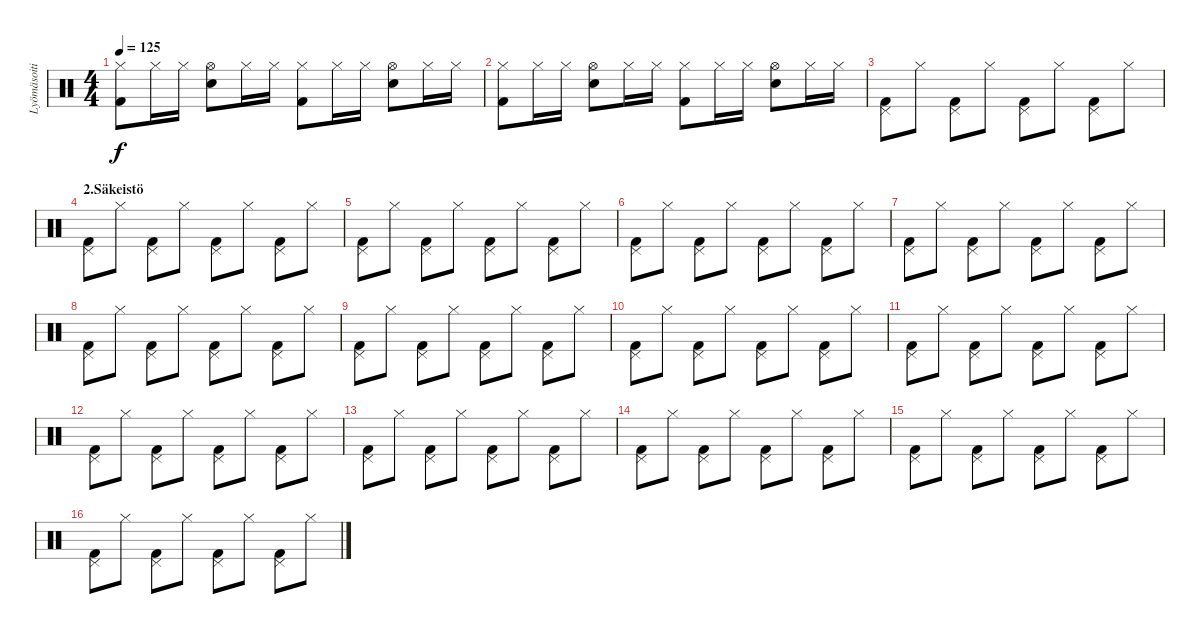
\track ("Lyömäsoitin" "Lyömäsoiti") {instrument percussion}
\staff {score}
\articulation defaults
\ts (4 4)
\tempo 125
\clef neutral
\ks c
("Hi-Hat (closed)" "Kick (hit) 2").8{dy f} "Hi-Hat (closed)".16 "Hi-Hat (closed)".16 ("Hi-Hat (open)" "Snare (hit) 2").8 "Hi-Hat (closed)".16 "Hi-Hat (closed)".16 ("Hi-Hat (closed)" "Kick (hit) 2").8 "Hi-Hat (closed)".16 "Hi-Hat (closed)".16 ("Hi-Hat (open)" "Snare (hit) 2").8 "Hi-Hat (closed)".16 "Hi-Hat (closed)".16 |
("Hi-Hat (closed)" "Kick (hit) 2").8 "Hi-Hat (closed)".16 "Hi-Hat (closed)".16 ("Hi-Hat (open)" "Snare (hit) 2").8 "Hi-Hat (closed)".16 "Hi-Hat (closed)".16 ("Hi-Hat (closed)" "Kick (hit) 2").8 "Hi-Hat (closed)".16 "Hi-Hat (closed)".16 ("Hi-Hat (open)" "Snare (hit) 2").8 "Hi-Hat (closed)".16 "Hi-Hat (closed)".16 |
("Pedal Hi-Hat (hit)" "Kick (hit) 2").8 "Hi-Hat (closed)".8 ("Pedal Hi-Hat (hit)" "Kick (hit) 2").8 "Hi-Hat (closed)".8 ("Pedal Hi-Hat (hit)" "Kick (hit) 2").8 "Hi-Hat (closed)".8 ("Pedal Hi-Hat (hit)" "Kick (hit) 2").8 "Hi-Hat (closed)".8 |
\section ("" "2.Säkeistö")
("Pedal Hi-Hat (hit)" "Kick (hit) 2").8 "Hi-Hat (closed)".8 ("Pedal Hi-Hat (hit)" "Kick (hit) 2").8 "Hi-Hat (closed)".8 ("Pedal Hi-Hat (hit)" "Kick (hit) 2").8 "Hi-Hat (closed)".8 ("Pedal Hi-Hat (hit)" "Kick (hit) 2").8 "Hi-Hat (closed)".8 |
("Pedal Hi-Hat (hit)" "Kick (hit) 2").8 "Hi-Hat (closed)".8 ("Pedal Hi-Hat (hit)" "Kick (hit) 2").8 "Hi-Hat (closed)".8 ("Pedal Hi-Hat (hit)" "Kick (hit) 2").8 "Hi-Hat (closed)".8 ("Pedal Hi-Hat (hit)" "Kick (hit) 2").8 "Hi-Hat (closed)".8 |
("Pedal Hi-Hat (hit)" "Kick (hit) 2").8 "Hi-Hat (closed)".8 ("Pedal Hi-Hat (hit)" "Kick (hit) 2").8 "Hi-Hat (closed)".8 ("Pedal Hi-Hat (hit)" "Kick (hit) 2").8 "Hi-Hat (closed)".8 ("Pedal Hi-Hat (hit)" "Kick (hit) 2").8 "Hi-Hat (closed)".8 |
("Pedal Hi-Hat (hit)" "Kick (hit) 2").8 "Hi-Hat (closed)".8 ("Pedal Hi-Hat (hit)" "Kick (hit) 2").8 "Hi-Hat (closed)".8 ("Pedal Hi-Hat (hit)" "Kick (hit) 2").8 "Hi-Hat (closed)".8 ("Pedal Hi-Hat (hit)" "Kick (hit) 2").8 "Hi-Hat (closed)".8 |
("Pedal Hi-Hat (hit)" "Kick (hit) 2").8 "Hi-Hat (closed)".8 ("Pedal Hi-Hat (hit)" "Kick (hit) 2").8 "Hi-Hat (closed)".8 ("Pedal Hi-Hat (hit)" "Kick (hit) 2").8 "Hi-Hat (closed)".8 ("Pedal Hi-Hat (hit)" "Kick (hit) 2").8 "Hi-Hat (closed)".8 |
("Pedal Hi-Hat (hit)" "Kick (hit) 2").8 "Hi-Hat (closed)".8 ("Pedal Hi-Hat (hit)" "Kick (hit) 2").8 "Hi-Hat (closed)".8 ("Pedal Hi-Hat (hit)" "Kick (hit) 2").8 "Hi-Hat (closed)".8 ("Pedal Hi-Hat (hit)" "Kick (hit) 2").8 "Hi-Hat (closed)".8 |
("Pedal Hi-Hat (hit)" "Kick (hit) 2").8 "Hi-Hat (closed)".8 ("Pedal Hi-Hat (hit)" "Kick (hit) 2").8 "Hi-Hat (closed)".8 ("Pedal Hi-Hat (hit)" "Kick (hit) 2").8 "Hi-Hat (closed)".8 ("Pedal Hi-Hat (hit)" "Kick (hit) 2").8 "Hi-Hat (closed)".8 |
("Pedal Hi-Hat (hit)" "Kick (hit) 2").8 "Hi-Hat (closed)".8 ("Pedal Hi-Hat (hit)" "Kick (hit) 2").8 "Hi-Hat (closed)".8 ("Pedal Hi-Hat (hit)" "Kick (hit) 2").8 "Hi-Hat (closed)".8 ("Pedal Hi-Hat (hit)" "Kick (hit) 2").8 "Hi-Hat (closed)".8 |
("Pedal Hi-Hat (hit)" "Kick (hit) 2").8 "Hi-Hat (closed)".8 ("Pedal Hi-Hat (hit)" "Kick (hit) 2").8 "Hi-Hat (closed)".8 ("Pedal Hi-Hat (hit)" "Kick (hit) 2").8 "Hi-Hat (closed)".8 ("Pedal Hi-Hat (hit)" "Kick (hit) 2").8 "Hi-Hat (closed)".8 |
("Pedal Hi-Hat (hit)" "Kick (hit) 2").8 "Hi-Hat (closed)".8 ("Pedal Hi-Hat (hit)" "Kick (hit) 2").8 "Hi-Hat (closed)".8 ("Pedal Hi-Hat (hit)" "Kick (hit) 2").8 "Hi-Hat (closed)".8 ("Pedal Hi-Hat (hit)" "Kick (hit) 2").8 "Hi-Hat (closed)".8 |
("Pedal Hi-Hat (hit)" "Kick (hit) 2").8 "Hi-Hat (closed)".8 ("Pedal Hi-Hat (hit)" "Kick (hit) 2").8 "Hi-Hat (closed)".8 ("Pedal Hi-Hat (hit)" "Kick (hit) 2").8 "Hi-Hat (closed)".8 ("Pedal Hi-Hat (hit)" "Kick (hit) 2").8 "Hi-Hat (closed)".8 |
("Pedal Hi-Hat (hit)" "Kick (hit) 2").8 "Hi-Hat (closed)".8 ("Pedal Hi-Hat (hit)" "Kick (hit) 2").8 "Hi-Hat (closed)".8 ("Pedal Hi-Hat (hit)" "Kick (hit) 2").8 "Hi-Hat (closed)".8 ("Pedal Hi-Hat (hit)" "Kick (hit) 2").8 "Hi-Hat (closed)".8 |
("Pedal Hi-Hat (hit)" "Kick (hit) 2").8 "Hi-Hat (closed)".8 ("Pedal Hi-Hat (hit)" "Kick (hit) 2").8 "Hi-Hat (closed)".8 ("Pedal Hi-Hat (hit)" "Kick (hit) 2").8 "Hi-Hat (closed)".8 ("Pedal Hi-Hat (hit)" "Kick (hit) 2").8 "Hi-Hat (closed)".8
